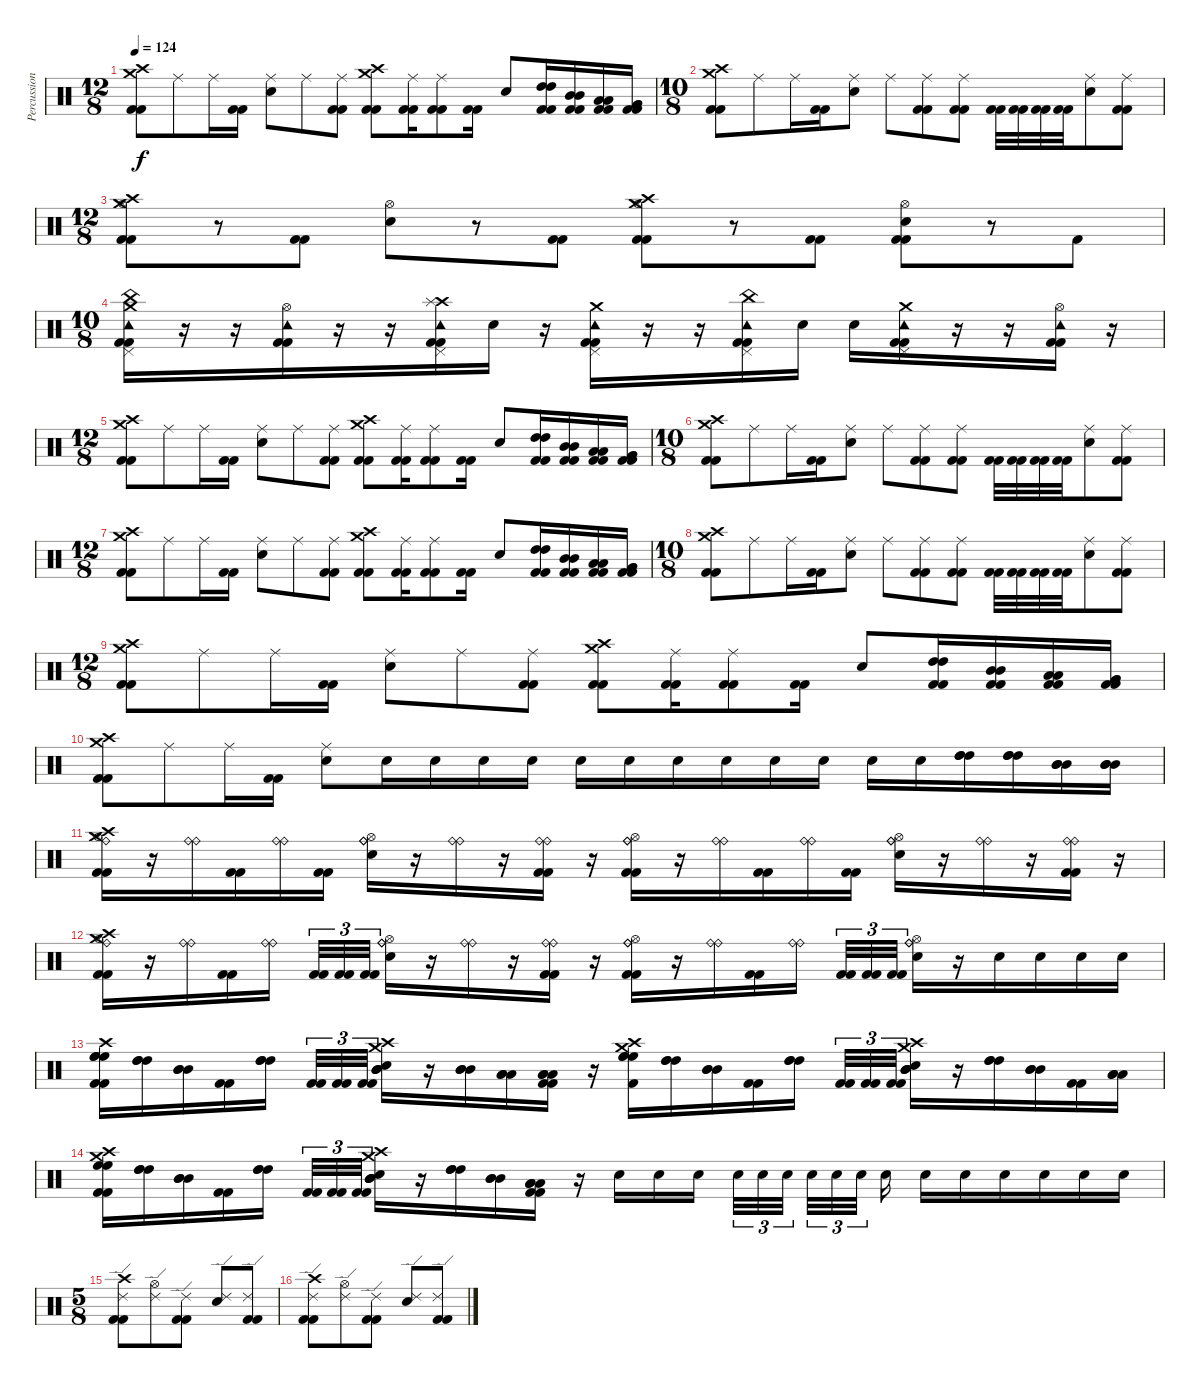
\track ("Percussioni" "Percussion") {instrument percussion}
\staff {score}
\articulation defaults
\ts (12 8)
\tempo 124
\clef neutral
\ks c
("Crash medium (hit)" "Crash high (hit)" "Kick (hit) 2" "Kick (hit) 2").8{dy f} "Ride (middle)".8 "Ride (middle)".16 ("Kick (hit) 2" "Kick (hit) 2").16 ("Ride (middle)" "Snare (hit) 2").8 "Ride (middle)".8 ("Ride (middle)" "Kick (hit) 2" "Kick (hit) 2").8 ("Crash medium (hit)" "Crash high (hit)" "Kick (hit) 2" "Kick (hit) 2").8 ("Ride (middle)" "Kick (hit) 2" "Kick (hit) 2").16 ("Ride (middle)" "Kick (hit) 2" "Kick (hit) 2").8 ("Kick (hit) 2" "Kick (hit) 2").16 "Snare (hit) 2".8 ("High Tom (hit)" "High Tom (hit)" "Kick (hit) 2" "Kick (hit) 2").16 ("Mid Tom (hit)" "Mid Tom (hit)" "Kick (hit) 2" "Kick (hit) 2").16 ("Low Tom (hit)" "Low Tom (hit)" "Kick (hit) 2" "Kick (hit) 2").16 ("Very Low Tom (hit)" "Very Low Tom (hit)" "Kick (hit) 2" "Kick (hit) 2").16 |
\ts (10 8)
("Crash medium (hit)" "Crash high (hit)" "Kick (hit) 2" "Kick (hit) 2").8 "Ride (middle)".8 "Ride (middle)".16 ("Kick (hit) 2" "Kick (hit) 2").16 ("Ride (middle)" "Snare (hit) 2").8 "Ride (middle)".8 ("Ride (middle)" "Kick (hit) 2" "Kick (hit) 2").8 ("Ride (middle)" "Kick (hit) 2" "Kick (hit) 2").8 ("Kick (hit) 2" "Kick (hit) 2").32 ("Kick (hit) 2" "Kick (hit) 2").32 ("Kick (hit) 2" "Kick (hit) 2").32 ("Kick (hit) 2" "Kick (hit) 2").32 ("Ride (middle)" "Snare (hit) 2").8 ("Ride (middle)" "Kick (hit) 2" "Kick (hit) 2").8 |
\ts (12 8)
("Crash medium (hit)" "Crash high (hit)" "Hi-Hat (open)" "Kick (hit) 2" "Kick (hit) 2").8 r.8 ("Kick (hit) 2" "Kick (hit) 2").8 ("Snare (hit) 2" "Hi-Hat (open)").8 r.8 ("Kick (hit) 2" "Kick (hit) 2").8 ("Crash medium (hit)" "Crash high (hit)" "Hi-Hat (open)" "Kick (hit) 2" "Kick (hit) 2").8 r.8 ("Kick (hit) 2" "Kick (hit) 2").8 ("Snare (hit) 2" "Hi-Hat (open)" "Kick (hit) 2" "Kick (hit) 2").8 r.8 "Kick (hit) 2".8 |
\ts (10 8)
("China (hit)" "Pedal Hi-Hat (hit)" "Crash medium (hit)" "Tambourine (hit)" "Kick (hit) 2" "Kick (hit) 2").16 r.16 r.16 ("Hi-Hat (open)" "Tambourine (hit)" "Kick (hit) 2" "Kick (hit) 2").16 r.16 r.16 ("Crash high (hit)" "Pedal Hi-Hat (hit)" "Splash (hit)" "Tambourine (hit)" "Kick (hit) 2" "Kick (hit) 2").16 "Snare (hit) 2".16 r.16 ("Crash medium (hit)" "Pedal Hi-Hat (hit)" "Tambourine (hit)" "Kick (hit) 2" "Kick (hit) 2").16 r.16 r.16 ("Pedal Hi-Hat (hit)" "China (hit)" "Tambourine (hit)" "Kick (hit) 2" "Kick (hit) 2").16 "Snare (hit) 2".16 "Snare (hit) 2".16 ("Crash medium (hit)" "Pedal Hi-Hat (hit)" "Tambourine (hit)" "Kick (hit) 2" "Kick (hit) 2").16 r.16 r.16 ("Hi-Hat (open)" "Tambourine (hit)" "Kick (hit) 2" "Kick (hit) 2").16 r.16 |
\ts (12 8)
("Crash medium (hit)" "Crash high (hit)" "Kick (hit) 2" "Kick (hit) 2").8 "Ride (middle)".8 "Ride (middle)".16 ("Kick (hit) 2" "Kick (hit) 2").16 ("Ride (middle)" "Snare (hit) 2").8 "Ride (middle)".8 ("Ride (middle)" "Kick (hit) 2" "Kick (hit) 2").8 ("Crash medium (hit)" "Crash high (hit)" "Kick (hit) 2" "Kick (hit) 2").8 ("Ride (middle)" "Kick (hit) 2" "Kick (hit) 2").16 ("Ride (middle)" "Kick (hit) 2" "Kick (hit) 2").8 ("Kick (hit) 2" "Kick (hit) 2").16 "Snare (hit) 2".8 ("High Tom (hit)" "High Tom (hit)" "Kick (hit) 2" "Kick (hit) 2").16 ("Mid Tom (hit)" "Mid Tom (hit)" "Kick (hit) 2" "Kick (hit) 2").16 ("Low Tom (hit)" "Low Tom (hit)" "Kick (hit) 2" "Kick (hit) 2").16 ("Very Low Tom (hit)" "Very Low Tom (hit)" "Kick (hit) 2" "Kick (hit) 2").16 |
\ts (10 8)
("Crash medium (hit)" "Crash high (hit)" "Kick (hit) 2" "Kick (hit) 2").8 "Ride (middle)".8 "Ride (middle)".16 ("Kick (hit) 2" "Kick (hit) 2").16 ("Ride (middle)" "Snare (hit) 2").8 "Ride (middle)".8 ("Ride (middle)" "Kick (hit) 2" "Kick (hit) 2").8 ("Ride (middle)" "Kick (hit) 2" "Kick (hit) 2").8 ("Kick (hit) 2" "Kick (hit) 2").32 ("Kick (hit) 2" "Kick (hit) 2").32 ("Kick (hit) 2" "Kick (hit) 2").32 ("Kick (hit) 2" "Kick (hit) 2").32 ("Ride (middle)" "Snare (hit) 2").8 ("Ride (middle)" "Kick (hit) 2" "Kick (hit) 2").8 |
\ts (12 8)
("Crash medium (hit)" "Crash high (hit)" "Kick (hit) 2" "Kick (hit) 2").8 "Ride (middle)".8 "Ride (middle)".16 ("Kick (hit) 2" "Kick (hit) 2").16 ("Ride (middle)" "Snare (hit) 2").8 "Ride (middle)".8 ("Ride (middle)" "Kick (hit) 2" "Kick (hit) 2").8 ("Crash medium (hit)" "Crash high (hit)" "Kick (hit) 2" "Kick (hit) 2").8 ("Ride (middle)" "Kick (hit) 2" "Kick (hit) 2").16 ("Ride (middle)" "Kick (hit) 2" "Kick (hit) 2").8 ("Kick (hit) 2" "Kick (hit) 2").16 "Snare (hit) 2".8 ("High Tom (hit)" "High Tom (hit)" "Kick (hit) 2" "Kick (hit) 2").16 ("Mid Tom (hit)" "Mid Tom (hit)" "Kick (hit) 2" "Kick (hit) 2").16 ("Low Tom (hit)" "Low Tom (hit)" "Kick (hit) 2" "Kick (hit) 2").16 ("Very Low Tom (hit)" "Very Low Tom (hit)" "Kick (hit) 2" "Kick (hit) 2").16 |
\ts (10 8)
("Crash medium (hit)" "Crash high (hit)" "Kick (hit) 2" "Kick (hit) 2").8 "Ride (middle)".8 "Ride (middle)".16 ("Kick (hit) 2" "Kick (hit) 2").16 ("Ride (middle)" "Snare (hit) 2").8 "Ride (middle)".8 ("Ride (middle)" "Kick (hit) 2" "Kick (hit) 2").8 ("Ride (middle)" "Kick (hit) 2" "Kick (hit) 2").8 ("Kick (hit) 2" "Kick (hit) 2").32 ("Kick (hit) 2" "Kick (hit) 2").32 ("Kick (hit) 2" "Kick (hit) 2").32 ("Kick (hit) 2" "Kick (hit) 2").32 ("Ride (middle)" "Snare (hit) 2").8 ("Ride (middle)" "Kick (hit) 2" "Kick (hit) 2").8 |
\ts (12 8)
("Crash medium (hit)" "Crash high (hit)" "Kick (hit) 2" "Kick (hit) 2").8 "Ride (middle)".8 "Ride (middle)".16 ("Kick (hit) 2" "Kick (hit) 2").16 ("Ride (middle)" "Snare (hit) 2").8 "Ride (middle)".8 ("Ride (middle)" "Kick (hit) 2" "Kick (hit) 2").8 ("Crash medium (hit)" "Crash high (hit)" "Kick (hit) 2" "Kick (hit) 2").8 ("Ride (middle)" "Kick (hit) 2" "Kick (hit) 2").16 ("Ride (middle)" "Kick (hit) 2" "Kick (hit) 2").8 ("Kick (hit) 2" "Kick (hit) 2").16 "Snare (hit) 2".8 ("High Tom (hit)" "High Tom (hit)" "Kick (hit) 2" "Kick (hit) 2").16 ("Mid Tom (hit)" "Mid Tom (hit)" "Kick (hit) 2" "Kick (hit) 2").16 ("Low Tom (hit)" "Low Tom (hit)" "Kick (hit) 2" "Kick (hit) 2").16 ("Very Low Tom (hit)" "Very Low Tom (hit)" "Kick (hit) 2" "Kick (hit) 2").16 |
("Crash medium (hit)" "Crash high (hit)" "Kick (hit) 2" "Kick (hit) 2").8 "Ride (middle)".8 "Ride (middle)".16 ("Kick (hit) 2" "Kick (hit) 2").16 ("Ride (middle)" "Snare (hit) 2").8 "Snare (hit) 2".16 "Snare (hit) 2".16 "Snare (hit) 2".16 "Snare (hit) 2".16 "Snare (hit) 2".16 "Snare (hit) 2".16 "Snare (hit) 2".16 "Snare (hit) 2".16 "Snare (hit) 2".16 "Snare (hit) 2".16 "Snare (hit) 2".16 "Snare (hit) 2".16 ("High Tom (hit)" "High Tom (hit)" "High Tom (hit)").16 ("High Tom (hit)" "High Tom (hit)" "High Tom (hit)").16 ("Mid Tom (hit)" "Mid Tom (hit)" "Mid Tom (hit)").16 ("Mid Tom (hit)" "Mid Tom (hit)" "Mid Tom (hit)").16 |
("Crash medium (hit)" "Crash high (hit)" "Ride (bell)" "Hi-Hat (open)" "Kick (hit) 2" "Kick (hit) 2").16 r.16 ("Ride (bell)" "Ride (bell)").16 ("Kick (hit) 2" "Kick (hit) 2").16 ("Ride (bell)" "Ride (bell)").16 ("Kick (hit) 2" "Kick (hit) 2").16 ("Ride (bell)" "Snare (hit) 2" "Ride (bell)" "Hi-Hat (open)").16 r.16 ("Ride (bell)" "Ride (bell)").16 r.16 ("Ride (bell)" "Ride (bell)" "Kick (hit) 2" "Kick (hit) 2").16 r.16 ("Ride (bell)" "Ride (bell)" "Hi-Hat (open)" "Kick (hit) 2" "Kick (hit) 2").16 r.16 ("Ride (bell)" "Ride (bell)").16 ("Kick (hit) 2" "Kick (hit) 2").16 ("Ride (bell)" "Ride (bell)").16 ("Kick (hit) 2" "Kick (hit) 2").16 ("Ride (bell)" "Ride (bell)" "Hi-Hat (open)" "Snare (hit) 2").16 r.16 ("Ride (bell)" "Ride (bell)").16 r.16 ("Ride (bell)" "Ride (bell)" "Kick (hit) 2" "Kick (hit) 2").16 r.16 |
("Crash medium (hit)" "Crash high (hit)" "Ride (bell)" "Hi-Hat (open)" "Kick (hit) 2" "Kick (hit) 2").16 r.16 ("Ride (bell)" "Ride (bell)").16 ("Kick (hit) 2" "Kick (hit) 2").16 ("Ride (bell)" "Ride (bell)").16 ("Kick (hit) 2" "Kick (hit) 2").32{tu (3 2)} ("Kick (hit) 2" "Kick (hit) 2").32{tu (3 2)} ("Kick (hit) 2" "Kick (hit) 2").32{tu (3 2)} ("Ride (bell)" "Snare (hit) 2" "Ride (bell)" "Hi-Hat (open)").16 r.16 ("Ride (bell)" "Ride (bell)").16 r.16 ("Ride (bell)" "Ride (bell)" "Kick (hit) 2" "Kick (hit) 2").16 r.16 ("Ride (bell)" "Ride (bell)" "Hi-Hat (open)" "Kick (hit) 2" "Kick (hit) 2").16 r.16 ("Ride (bell)" "Ride (bell)").16 ("Kick (hit) 2" "Kick (hit) 2").16 ("Ride (bell)" "Ride (bell)").16 ("Kick (hit) 2" "Kick (hit) 2").32{tu (3 2)} ("Kick (hit) 2" "Kick (hit) 2").32{tu (3 2)} ("Kick (hit) 2" "Kick (hit) 2").32{tu (3 2)} ("Ride (bell)" "Ride (bell)" "Hi-Hat (open)" "Snare (hit) 2").16 r.16 "Snare (hit) 2".16 "Snare (hit) 2".16 "Snare (hit) 2".16 "Snare (hit) 2".16 |
("Crash high (hit)" "High Floor Tom (hit)" "High Floor Tom (hit)" "High Floor Tom (hit)" "Kick (hit) 2" "Kick (hit) 2").16 ("High Tom (hit)" "High Tom (hit)" "High Tom (hit)").16 ("Mid Tom (hit)" "Mid Tom (hit)" "Mid Tom (hit)").16 ("Kick (hit) 2" "Kick (hit) 2").16 ("High Tom (hit)" "High Tom (hit)" "High Tom (hit)").16 ("Kick (hit) 2" "Kick (hit) 2").32{tu (3 2)} ("Kick (hit) 2" "Kick (hit) 2").32{tu (3 2)} ("Kick (hit) 2" "Kick (hit) 2").32{tu (3 2)} ("Crash high (hit)" "Mid Tom (hit)" "Mid Tom (hit)" "Mid Tom (hit)" "Crash medium (hit)" "Snare (hit) 2").16 r.16 ("Mid Tom (hit)" "Mid Tom (hit)" "Mid Tom (hit)").16 ("Low Tom (hit)" "Low Tom (hit)" "Low Tom (hit)").16 ("Low Tom (hit)" "Low Tom (hit)" "Low Tom (hit)" "Kick (hit) 2" "Kick (hit) 2").16 r.16 ("Crash high (hit)" "High Floor Tom (hit)" "High Floor Tom (hit)" "High Floor Tom (hit)" "Crash medium (hit)" "Kick (hit) 2").16 ("High Tom (hit)" "High Tom (hit)" "High Tom (hit)").16 ("Mid Tom (hit)" "Mid Tom (hit)" "Mid Tom (hit)").16 ("Kick (hit) 2" "Kick (hit) 2").16 ("High Tom (hit)" "High Tom (hit)" "High Tom (hit)").16 ("Kick (hit) 2" "Kick (hit) 2").32{tu (3 2)} ("Kick (hit) 2" "Kick (hit) 2").32{tu (3 2)} ("Kick (hit) 2" "Kick (hit) 2").32{tu (3 2)} ("Crash high (hit)" "Mid Tom (hit)" "Mid Tom (hit)" "Mid Tom (hit)" "Crash medium (hit)" "Snare (hit) 2").16 r.16 ("High Tom (hit)" "High Tom (hit)" "High Tom (hit)").16 ("Mid Tom (hit)" "Mid Tom (hit)" "Mid Tom (hit)").16 ("Kick (hit) 2" "Kick (hit) 2").16 ("Low Tom (hit)" "Low Tom (hit)" "Low Tom (hit)").16 |
("Crash high (hit)" "High Floor Tom (hit)" "High Floor Tom (hit)" "Kick (hit) 2" "Crash medium (hit)" "Kick (hit) 2").16 ("High Tom (hit)" "High Tom (hit)" "High Tom (hit)").16 ("Mid Tom (hit)" "Mid Tom (hit)" "Mid Tom (hit)").16 ("Kick (hit) 2" "Kick (hit) 2").16 ("High Tom (hit)" "High Tom (hit)" "High Tom (hit)").16 ("Kick (hit) 2" "Kick (hit) 2").32{tu (3 2)} ("Kick (hit) 2" "Kick (hit) 2").32{tu (3 2)} ("Kick (hit) 2" "Kick (hit) 2").32{tu (3 2)} ("Crash high (hit)" "Mid Tom (hit)" "Mid Tom (hit)" "Mid Tom (hit)" "Crash medium (hit)" "Snare (hit) 2").16 r.16 ("High Tom (hit)" "High Tom (hit)" "High Tom (hit)").16 ("Mid Tom (hit)" "Mid Tom (hit)" "Mid Tom (hit)").16 ("Low Tom (hit)" "Low Tom (hit)" "Low Tom (hit)" "Kick (hit) 2" "Kick (hit) 2").16 r.16 "Snare (hit) 2".16 "Snare (hit) 2".16 "Snare (hit) 2".16 "Snare (hit) 2".32{tu (3 2)} "Snare (hit) 2".32{tu (3 2)} "Snare (hit) 2".32{tu (3 2)} "Snare (hit) 2".32{tu (3 2)} "Snare (hit) 2".32{tu (3 2)} "Snare (hit) 2".32{tu (3 2)} "Snare (hit) 2".16 "Snare (hit) 2".16 "Snare (hit) 2".16 "Snare (hit) 2".16 "Snare (hit) 2".16 "Snare (hit) 2".16 "Snare (hit) 2".16 |
\ts (5 8)
("Crash high (hit)" "Ride (edge) 2" "Kick (hit) 2" "Kick (hit) 2").8 ("Hi-Hat (open)" "Ride (edge) 2").8 ("Ride (edge) 2" "Kick (hit) 2" "Kick (hit) 2").8 ("Snare (hit) 2" "Ride (edge) 2").8 ("Ride (edge) 2" "Kick (hit) 2" "Kick (hit) 2").8 |
("Crash high (hit)" "Ride (edge) 2" "Kick (hit) 2" "Kick (hit) 2").8 ("Hi-Hat (open)" "Ride (edge) 2").8 ("Ride (edge) 2" "Kick (hit) 2" "Kick (hit) 2").8 ("Snare (hit) 2" "Ride (edge) 2").8 ("Ride (edge) 2" "Kick (hit) 2" "Kick (hit) 2").8
